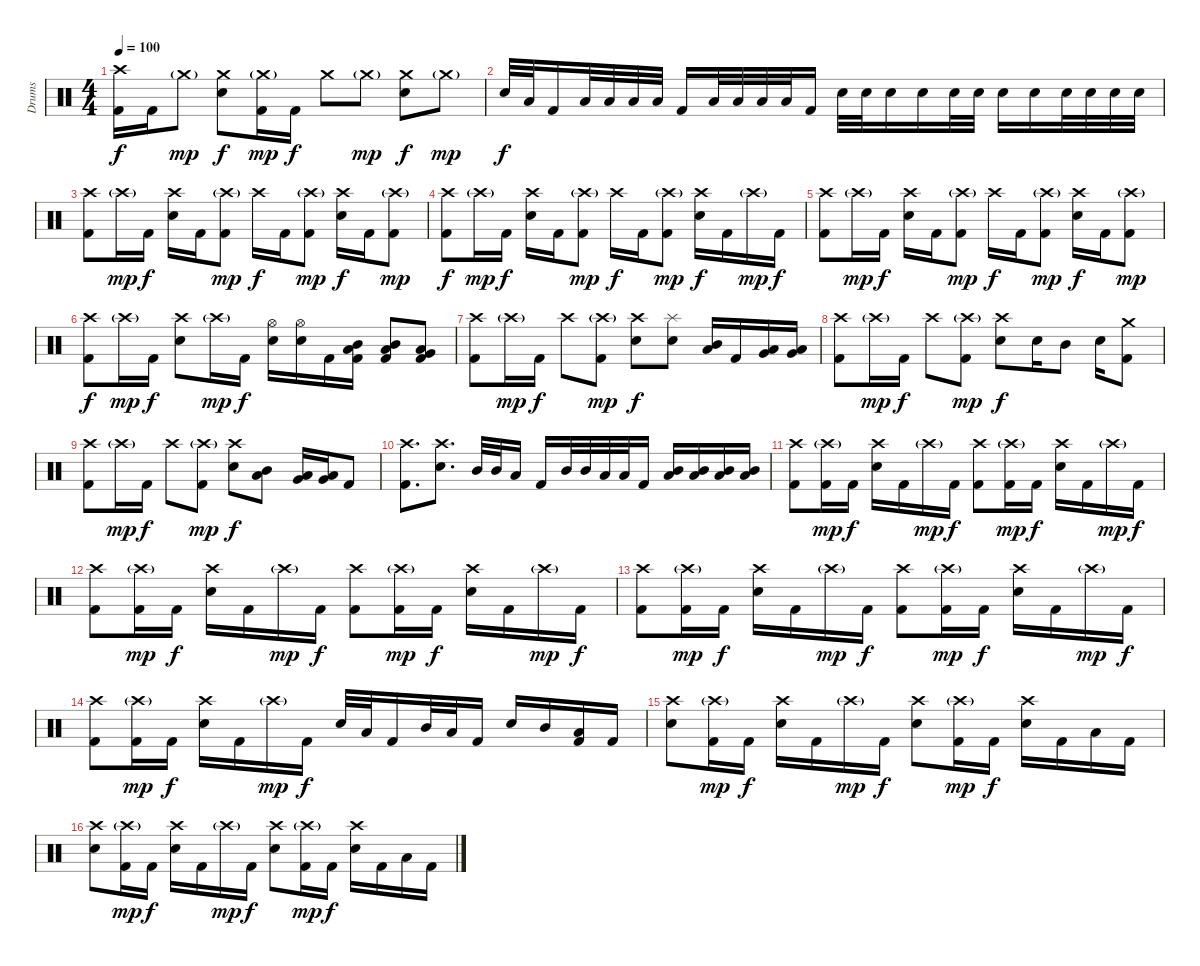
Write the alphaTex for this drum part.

\track ("Drums" "Drums") {instrument percussion}
\staff {score}
\articulation defaults
\ts (4 4)
\tempo 100
\clef neutral
\ks c
("Crash high (hit)" "Kick (hit) 2").16{dy f} "Kick (hit) 2".16 "Crash medium (hit)"{g}.8{dy mp} ("Crash medium (hit)" "Snare (hit) 2").8{dy f} ("Crash medium (hit)"{g} "Kick (hit) 2").16{dy mp} "Kick (hit) 2".16{dy f} "Crash medium (hit)".8 "Crash medium (hit)"{g}.8{dy mp} ("Crash medium (hit)" "Snare (hit) 2").8{dy f} "Crash medium (hit)"{g}.8{dy mp} |
"Snare (hit) 2".32{dy f} "Low Tom (hit)".32 "Kick (hit) 2".16 "Low Tom (hit)".32 "Low Tom (hit)".32 "Low Tom (hit)".32 "Low Tom (hit)".32 "Kick (hit) 2".16 "Low Tom (hit)".32 "Low Tom (hit)".32 "Low Tom (hit)".32 "Low Tom (hit)".32 "Kick (hit) 2".16 "Snare (hit) 2".32 "Snare (hit) 2".32 "Snare (hit) 2".16 "Snare (hit) 2".16 "Snare (hit) 2".32 "Snare (hit) 2".32 "Snare (hit) 2".16 "Snare (hit) 2".16 "Snare (hit) 2".32 "Snare (hit) 2".32 "Snare (hit) 2".32 "Snare (hit) 2".32 |
("Crash high (hit)" "Kick (hit) 2").8 "Crash high (hit)"{g}.16{dy mp} "Kick (hit) 2".16{dy f} ("Crash high (hit)" "Snare (hit) 2").16 "Kick (hit) 2".16 ("Crash high (hit)"{g} "Kick (hit) 2").8{dy mp} "Crash high (hit)".16{dy f} "Kick (hit) 2".16 ("Crash high (hit)"{g} "Kick (hit) 2").8{dy mp} ("Crash high (hit)" "Snare (hit) 2").16{dy f} "Kick (hit) 2".16 ("Crash high (hit)"{g} "Kick (hit) 2").8{dy mp} |
("Crash high (hit)" "Kick (hit) 2").8{dy f} "Crash high (hit)"{g}.16{dy mp} "Kick (hit) 2".16{dy f} ("Crash high (hit)" "Snare (hit) 2").16 "Kick (hit) 2".16 ("Crash high (hit)"{g} "Kick (hit) 2").8{dy mp} "Crash high (hit)".16{dy f} "Kick (hit) 2".16 ("Crash high (hit)"{g} "Kick (hit) 2").8{dy mp} ("Crash high (hit)" "Snare (hit) 2").16{dy f} "Kick (hit) 2".16 "Crash high (hit)"{g}.16{dy mp} "Kick (hit) 2".16{dy f} |
("Crash high (hit)" "Kick (hit) 2").8 "Crash high (hit)"{g}.16{dy mp} "Kick (hit) 2".16{dy f} ("Crash high (hit)" "Snare (hit) 2").16 "Kick (hit) 2".16 ("Crash high (hit)"{g} "Kick (hit) 2").8{dy mp} "Crash high (hit)".16{dy f} "Kick (hit) 2".16 ("Crash high (hit)"{g} "Kick (hit) 2").8{dy mp} ("Crash high (hit)" "Snare (hit) 2").16{dy f} "Kick (hit) 2".16 ("Crash high (hit)"{g} "Kick (hit) 2").8{dy mp} |
("Crash high (hit)" "Kick (hit) 2").8{dy f} "Crash high (hit)"{g}.16{dy mp} "Kick (hit) 2".16{dy f} ("Crash high (hit)" "Snare (hit) 2").8 "Crash high (hit)"{g}.16{dy mp} "Kick (hit) 2".16{dy f} ("Hi-Hat (open)" "Snare (hit) 2").16 ("Hi-Hat (open)" "Snare (hit) 2").16 "Kick (hit) 2".16 ("Mid Tom (hit)" "Low Tom (hit)" "Kick (hit) 2").16 ("Mid Tom (hit)" "Low Tom (hit)" "Kick (hit) 2").8 ("Low Tom (hit)" "Very Low Tom (hit)" "Kick (hit) 2").8 |
("Crash high (hit)" "Kick (hit) 2").8 "Crash high (hit)"{g}.16{dy mp} "Kick (hit) 2".16{dy f} "Crash high (hit)".8 ("Crash high (hit)"{g} "Kick (hit) 2").8{dy mp} ("Crash high (hit)" "Snare (hit) 2").8{dy f} ("Splash (hit)" "Snare (hit) 2").8 ("Mid Tom (hit)" "Low Tom (hit)").16 "Kick (hit) 2".16 ("Low Tom (hit)" "Very Low Tom (hit)").16 ("Low Tom (hit)" "Very Low Tom (hit)").16 |
("Crash high (hit)" "Kick (hit) 2").8 "Crash high (hit)"{g}.16{dy mp} "Kick (hit) 2".16{dy f} "Crash high (hit)".8 ("Crash high (hit)"{g} "Kick (hit) 2").8{dy mp} ("Crash high (hit)" "Snare (hit) 2").8{dy f} "Snare (hit) 2".16 "Mid Tom (hit)".8 "Snare (hit) 2".16 ("Crash medium (hit)" "Kick (hit) 2").8 |
("Crash high (hit)" "Kick (hit) 2").8 "Crash high (hit)"{g}.16{dy mp} "Kick (hit) 2".16{dy f} "Crash high (hit)".8 ("Crash high (hit)"{g} "Kick (hit) 2").8{dy mp} ("Crash high (hit)" "Snare (hit) 2").8{dy f} ("Mid Tom (hit)" "Low Tom (hit)").8 ("Low Tom (hit)" "Very Low Tom (hit)").16 ("Low Tom (hit)" "Very Low Tom (hit)").16 "Kick (hit) 2".8 |
("Crash high (hit)" "Kick (hit) 2").8{d} ("Crash high (hit)" "Snare (hit) 2").8{d} "Mid Tom (hit)".32 "Mid Tom (hit)".32 "Low Tom (hit)".16 "Kick (hit) 2".16 "Mid Tom (hit)".32 "Mid Tom (hit)".32 "Low Tom (hit)".32 "Low Tom (hit)".32 "Kick (hit) 2".16 ("Mid Tom (hit)" "Low Tom (hit)").16 ("Mid Tom (hit)" "Low Tom (hit)").16 ("Mid Tom (hit)" "Low Tom (hit)").16 ("Mid Tom (hit)" "Low Tom (hit)").16 |
("Crash high (hit)" "Kick (hit) 2").8 ("Crash high (hit)"{g} "Kick (hit) 2").16{dy mp} "Kick (hit) 2".16{dy f} ("Crash high (hit)" "Snare (hit) 2").16 "Kick (hit) 2".16 "Crash high (hit)"{g}.16{dy mp} "Kick (hit) 2".16{dy f} ("Crash high (hit)" "Kick (hit) 2").8 ("Crash high (hit)"{g} "Kick (hit) 2").16{dy mp} "Kick (hit) 2".16{dy f} ("Crash high (hit)" "Snare (hit) 2").16 "Kick (hit) 2".16 "Crash high (hit)"{g}.16{dy mp} "Kick (hit) 2".16{dy f} |
("Crash high (hit)" "Kick (hit) 2").8 ("Crash high (hit)"{g} "Kick (hit) 2").16{dy mp} "Kick (hit) 2".16{dy f} ("Crash high (hit)" "Snare (hit) 2").16 "Kick (hit) 2".16 "Crash high (hit)"{g}.16{dy mp} "Kick (hit) 2".16{dy f} ("Crash high (hit)" "Kick (hit) 2").8 ("Crash high (hit)"{g} "Kick (hit) 2").16{dy mp} "Kick (hit) 2".16{dy f} ("Crash high (hit)" "Snare (hit) 2").16 "Kick (hit) 2".16 "Crash high (hit)"{g}.16{dy mp} "Kick (hit) 2".16{dy f} |
("Crash high (hit)" "Kick (hit) 2").8 ("Crash high (hit)"{g} "Kick (hit) 2").16{dy mp} "Kick (hit) 2".16{dy f} ("Crash high (hit)" "Snare (hit) 2").16 "Kick (hit) 2".16 "Crash high (hit)"{g}.16{dy mp} "Kick (hit) 2".16{dy f} ("Crash high (hit)" "Kick (hit) 2").8 ("Crash high (hit)"{g} "Kick (hit) 2").16{dy mp} "Kick (hit) 2".16{dy f} ("Crash high (hit)" "Snare (hit) 2").16 "Kick (hit) 2".16 "Crash high (hit)"{g}.16{dy mp} "Kick (hit) 2".16{dy f} |
("Crash high (hit)" "Kick (hit) 2").8 ("Crash high (hit)"{g} "Kick (hit) 2").16{dy mp} "Kick (hit) 2".16{dy f} ("Crash high (hit)" "Snare (hit) 2").16 "Kick (hit) 2".16 "Crash high (hit)"{g}.16{dy mp} "Kick (hit) 2".16{dy f} "Snare (hit) 2".32 "Low Tom (hit)".32 "Kick (hit) 2".16 "Mid Tom (hit)".32 "Low Tom (hit)".32 "Kick (hit) 2".16 "Snare (hit) 2".16 "Mid Tom (hit)".16 ("Low Tom (hit)" "Kick (hit) 2").16 "Kick (hit) 2".16 |
("Crash high (hit)" "Snare (hit) 2").8 ("Crash high (hit)"{g} "Kick (hit) 2").16{dy mp} "Kick (hit) 2".16{dy f} ("Crash high (hit)" "Snare (hit) 2").16 "Kick (hit) 2".16 "Crash high (hit)"{g}.16{dy mp} "Kick (hit) 2".16{dy f} ("Crash high (hit)" "Snare (hit) 2").8 ("Crash high (hit)"{g} "Kick (hit) 2").16{dy mp} "Kick (hit) 2".16{dy f} ("Crash high (hit)" "Snare (hit) 2").16 "Kick (hit) 2".16 "Low Tom (hit)".16 "Kick (hit) 2".16 |
("Crash high (hit)" "Snare (hit) 2").8 ("Crash high (hit)"{g} "Kick (hit) 2").16{dy mp} "Kick (hit) 2".16{dy f} ("Crash high (hit)" "Snare (hit) 2").16 "Kick (hit) 2".16 "Crash high (hit)"{g}.16{dy mp} "Kick (hit) 2".16{dy f} ("Crash high (hit)" "Snare (hit) 2").8 ("Crash high (hit)"{g} "Kick (hit) 2").16{dy mp} "Kick (hit) 2".16{dy f} ("Crash high (hit)" "Snare (hit) 2").16 "Kick (hit) 2".16 "Low Tom (hit)".16 "Kick (hit) 2".16
